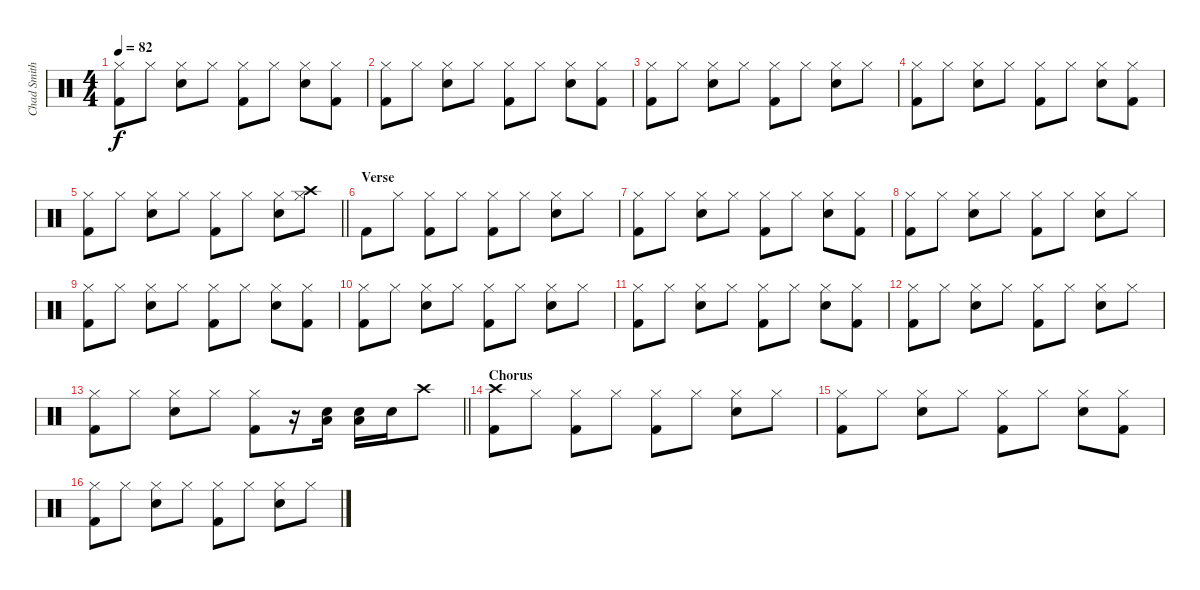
\track ("Chad Smith Drum" "Chad Smith") {instrument percussion}
\staff {score}
\articulation defaults
\ts (4 4)
\tempo 82
\clef neutral
\ks c
("Kick (hit) 2" "Hi-Hat (closed)").8{dy f} "Hi-Hat (closed)".8 ("Snare (hit) 2" "Hi-Hat (closed)").8 "Hi-Hat (closed)".8 ("Kick (hit) 2" "Hi-Hat (closed)").8 "Hi-Hat (closed)".8 ("Snare (hit) 2" "Hi-Hat (closed)").8 ("Kick (hit) 2" "Hi-Hat (closed)").8 |
("Kick (hit) 2" "Hi-Hat (closed)").8 "Hi-Hat (closed)".8 ("Snare (hit) 2" "Hi-Hat (closed)").8 "Hi-Hat (closed)".8 ("Kick (hit) 2" "Hi-Hat (closed)").8 "Hi-Hat (closed)".8 ("Snare (hit) 2" "Hi-Hat (closed)").8 ("Kick (hit) 2" "Hi-Hat (closed)").8 |
("Kick (hit) 2" "Hi-Hat (closed)").8 "Hi-Hat (closed)".8 ("Snare (hit) 2" "Hi-Hat (closed)").8 "Hi-Hat (closed)".8 ("Kick (hit) 2" "Hi-Hat (closed)").8 "Hi-Hat (closed)".8 ("Snare (hit) 2" "Hi-Hat (closed)").8 "Hi-Hat (closed)".8 |
("Kick (hit) 2" "Hi-Hat (closed)").8 "Hi-Hat (closed)".8 ("Snare (hit) 2" "Hi-Hat (closed)").8 "Hi-Hat (closed)".8 ("Kick (hit) 2" "Hi-Hat (closed)").8 "Hi-Hat (closed)".8 ("Snare (hit) 2" "Hi-Hat (closed)").8 ("Kick (hit) 2" "Hi-Hat (closed)").8 |
\barLineRight lightlight
("Kick (hit) 2" "Hi-Hat (closed)").8 "Hi-Hat (closed)".8 ("Snare (hit) 2" "Hi-Hat (closed)").8 "Hi-Hat (closed)".8 ("Kick (hit) 2" "Hi-Hat (closed)").8 "Hi-Hat (closed)".8 ("Snare (hit) 2" "Hi-Hat (closed)").8 ("Crash high (hit)" "Hi-Hat (closed)").8 |
\section ("" "Verse")
"Kick (hit) 2".8 "Hi-Hat (closed)".8 ("Kick (hit) 2" "Hi-Hat (closed)").8 "Hi-Hat (closed)".8 ("Kick (hit) 2" "Hi-Hat (closed)").8 "Hi-Hat (closed)".8 ("Snare (hit) 2" "Hi-Hat (closed)").8 "Hi-Hat (closed)".8 |
("Kick (hit) 2" "Hi-Hat (closed)").8 "Hi-Hat (closed)".8 ("Snare (hit) 2" "Hi-Hat (closed)").8 "Hi-Hat (closed)".8 ("Kick (hit) 2" "Hi-Hat (closed)").8 "Hi-Hat (closed)".8 ("Snare (hit) 2" "Hi-Hat (closed)").8 ("Kick (hit) 2" "Hi-Hat (closed)").8 |
("Kick (hit) 2" "Hi-Hat (closed)").8 "Hi-Hat (closed)".8 ("Snare (hit) 2" "Hi-Hat (closed)").8 "Hi-Hat (closed)".8 ("Kick (hit) 2" "Hi-Hat (closed)").8 "Hi-Hat (closed)".8 ("Snare (hit) 2" "Hi-Hat (closed)").8 "Hi-Hat (closed)".8 |
("Kick (hit) 2" "Hi-Hat (closed)").8 "Hi-Hat (closed)".8 ("Snare (hit) 2" "Hi-Hat (closed)").8 "Hi-Hat (closed)".8 ("Kick (hit) 2" "Hi-Hat (closed)").8 "Hi-Hat (closed)".8 ("Snare (hit) 2" "Hi-Hat (closed)").8 ("Kick (hit) 2" "Hi-Hat (closed)").8 |
("Kick (hit) 2" "Hi-Hat (closed)").8 "Hi-Hat (closed)".8 ("Snare (hit) 2" "Hi-Hat (closed)").8 "Hi-Hat (closed)".8 ("Kick (hit) 2" "Hi-Hat (closed)").8 "Hi-Hat (closed)".8 ("Snare (hit) 2" "Hi-Hat (closed)").8 "Hi-Hat (closed)".8 |
("Kick (hit) 2" "Hi-Hat (closed)").8 "Hi-Hat (closed)".8 ("Snare (hit) 2" "Hi-Hat (closed)").8 "Hi-Hat (closed)".8 ("Kick (hit) 2" "Hi-Hat (closed)").8 "Hi-Hat (closed)".8 ("Snare (hit) 2" "Hi-Hat (closed)").8 ("Kick (hit) 2" "Hi-Hat (closed)").8 |
("Kick (hit) 2" "Hi-Hat (closed)").8 "Hi-Hat (closed)".8 ("Snare (hit) 2" "Hi-Hat (closed)").8 "Hi-Hat (closed)".8 ("Kick (hit) 2" "Hi-Hat (closed)").8 "Hi-Hat (closed)".8 ("Snare (hit) 2" "Hi-Hat (closed)").8 "Hi-Hat (closed)".8 |
\barLineRight lightlight
("Kick (hit) 2" "Hi-Hat (closed)").8 "Hi-Hat (closed)".8 ("Snare (hit) 2" "Hi-Hat (closed)").8 "Hi-Hat (closed)".8 ("Kick (hit) 2" "Hi-Hat (closed)").8 r.16 ("Snare (hit) 2" "Low Tom (hit)").16 ("Snare (hit) 2" "Low Tom (hit)").16 "Snare (hit) 2".16 "Crash high (hit)".8 |
\section ("" "Chorus")
("Crash high (hit)" "Kick (hit) 2").8 "Hi-Hat (closed)".8 ("Kick (hit) 2" "Hi-Hat (closed)").8 "Hi-Hat (closed)".8 ("Kick (hit) 2" "Hi-Hat (closed)").8 "Hi-Hat (closed)".8 ("Snare (hit) 2" "Hi-Hat (closed)").8 "Hi-Hat (closed)".8 |
("Kick (hit) 2" "Hi-Hat (closed)").8 "Hi-Hat (closed)".8 ("Snare (hit) 2" "Hi-Hat (closed)").8 "Hi-Hat (closed)".8 ("Kick (hit) 2" "Hi-Hat (closed)").8 "Hi-Hat (closed)".8 ("Snare (hit) 2" "Hi-Hat (closed)").8 ("Kick (hit) 2" "Hi-Hat (closed)").8 |
("Kick (hit) 2" "Hi-Hat (closed)").8 "Hi-Hat (closed)".8 ("Snare (hit) 2" "Hi-Hat (closed)").8 "Hi-Hat (closed)".8 ("Kick (hit) 2" "Hi-Hat (closed)").8 "Hi-Hat (closed)".8 ("Snare (hit) 2" "Hi-Hat (closed)").8 "Hi-Hat (closed)".8
